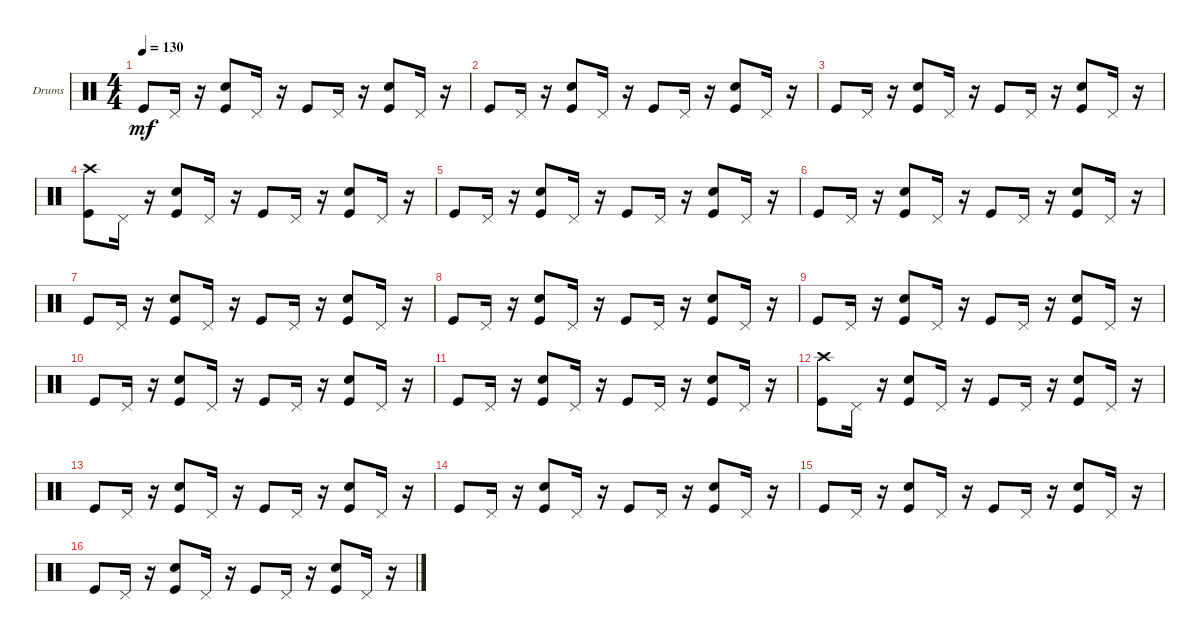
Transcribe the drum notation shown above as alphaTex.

\bracketExtendMode groupsimilarinstruments
\firstSystemTrackNameOrientation horizontal
\otherSystemsTrackNameOrientation horizontal
\track ("MIDI Drums" "Drums") {instrument percussion}
\staff {score}
\articulation defaults
\ts (4 4)
\tempo 130
\clef neutral
\ks c "Kick (hit)".8{dy mf} "Pedal Hi-Hat (hit)".16
r.16 ("Snare (hit) 2" "Kick (hit)").8 "Pedal Hi-Hat (hit)".16 r.16 "Kick (hit)".8 "Pedal Hi-Hat (hit)".16 r.16 ("Kick (hit)" "Snare (hit) 2").8 "Pedal Hi-Hat (hit)".16 r.16 |
"Kick (hit)".8 "Pedal Hi-Hat (hit)".16 r.16 ("Snare (hit) 2" "Kick (hit)").8 "Pedal Hi-Hat (hit)".16 r.16 "Kick (hit)".8 "Pedal Hi-Hat (hit)".16 r.16 ("Snare (hit) 2" "Kick (hit)").8 "Pedal Hi-Hat (hit)".16 r.16 |
"Kick (hit)".8 "Pedal Hi-Hat (hit)".16 r.16 ("Snare (hit) 2" "Kick (hit)").8 "Pedal Hi-Hat (hit)".16 r.16 "Kick (hit)".8 "Pedal Hi-Hat (hit)".16 r.16 ("Kick (hit)" "Snare (hit) 2").8 "Pedal Hi-Hat (hit)".16 r.16 |
("Crash high (hit)" "Kick (hit)").8 "Pedal Hi-Hat (hit)".16 r.16 ("Snare (hit) 2" "Kick (hit)").8 "Pedal Hi-Hat (hit)".16 r.16 "Kick (hit)".8 "Pedal Hi-Hat (hit)".16 r.16 ("Kick (hit)" "Snare (hit) 2").8 "Pedal Hi-Hat (hit)".16 r.16 |
"Kick (hit)".8 "Pedal Hi-Hat (hit)".16 r.16 ("Snare (hit) 2" "Kick (hit)").8 "Pedal Hi-Hat (hit)".16 r.16 "Kick (hit)".8 "Pedal Hi-Hat (hit)".16 r.16 ("Kick (hit)" "Snare (hit) 2").8 "Pedal Hi-Hat (hit)".16 r.16 |
"Kick (hit)".8 "Pedal Hi-Hat (hit)".16 r.16 ("Snare (hit) 2" "Kick (hit)").8 "Pedal Hi-Hat (hit)".16 r.16 "Kick (hit)".8 "Pedal Hi-Hat (hit)".16 r.16 ("Snare (hit) 2" "Kick (hit)").8 "Pedal Hi-Hat (hit)".16 r.16 |
"Kick (hit)".8 "Pedal Hi-Hat (hit)".16 r.16 ("Snare (hit) 2" "Kick (hit)").8 "Pedal Hi-Hat (hit)".16 r.16 "Kick (hit)".8 "Pedal Hi-Hat (hit)".16 r.16 ("Kick (hit)" "Snare (hit) 2").8 "Pedal Hi-Hat (hit)".16 r.16 |
"Kick (hit)".8 "Pedal Hi-Hat (hit)".16 r.16 ("Snare (hit) 2" "Kick (hit)").8 "Pedal Hi-Hat (hit)".16 r.16 "Kick (hit)".8 "Pedal Hi-Hat (hit)".16 r.16 ("Snare (hit) 2" "Kick (hit)").8 "Pedal Hi-Hat (hit)".16 r.16 |
"Kick (hit)".8 "Pedal Hi-Hat (hit)".16 r.16 ("Snare (hit) 2" "Kick (hit)").8 "Pedal Hi-Hat (hit)".16 r.16 "Kick (hit)".8 "Pedal Hi-Hat (hit)".16 r.16 ("Kick (hit)" "Snare (hit) 2").8 "Pedal Hi-Hat (hit)".16 r.16 |
"Kick (hit)".8 "Pedal Hi-Hat (hit)".16 r.16 ("Snare (hit) 2" "Kick (hit)").8 "Pedal Hi-Hat (hit)".16 r.16 "Kick (hit)".8 "Pedal Hi-Hat (hit)".16 r.16 ("Snare (hit) 2" "Kick (hit)").8 "Pedal Hi-Hat (hit)".16 r.16 |
"Kick (hit)".8 "Pedal Hi-Hat (hit)".16 r.16 ("Snare (hit) 2" "Kick (hit)").8 "Pedal Hi-Hat (hit)".16 r.16 "Kick (hit)".8 "Pedal Hi-Hat (hit)".16 r.16 ("Kick (hit)" "Snare (hit) 2").8 "Pedal Hi-Hat (hit)".16 r.16 |
("Crash high (hit)" "Kick (hit)").8 "Pedal Hi-Hat (hit)".16 r.16 ("Snare (hit) 2" "Kick (hit)").8 "Pedal Hi-Hat (hit)".16 r.16 "Kick (hit)".8 "Pedal Hi-Hat (hit)".16 r.16 ("Kick (hit)" "Snare (hit) 2").8 "Pedal Hi-Hat (hit)".16 r.16 |
"Kick (hit)".8 "Pedal Hi-Hat (hit)".16 r.16 ("Snare (hit) 2" "Kick (hit)").8 "Pedal Hi-Hat (hit)".16 r.16 "Kick (hit)".8 "Pedal Hi-Hat (hit)".16 r.16 ("Kick (hit)" "Snare (hit) 2").8 "Pedal Hi-Hat (hit)".16 r.16 |
"Kick (hit)".8 "Pedal Hi-Hat (hit)".16 r.16 ("Snare (hit) 2" "Kick (hit)").8 "Pedal Hi-Hat (hit)".16 r.16 "Kick (hit)".8 "Pedal Hi-Hat (hit)".16 r.16 ("Snare (hit) 2" "Kick (hit)").8 "Pedal Hi-Hat (hit)".16 r.16 |
"Kick (hit)".8 "Pedal Hi-Hat (hit)".16 r.16 ("Snare (hit) 2" "Kick (hit)").8 "Pedal Hi-Hat (hit)".16 r.16 "Kick (hit)".8 "Pedal Hi-Hat (hit)".16 r.16 ("Kick (hit)" "Snare (hit) 2").8 "Pedal Hi-Hat (hit)".16 r.16 |
"Kick (hit)".8 "Pedal Hi-Hat (hit)".16 r.16 ("Snare (hit) 2" "Kick (hit)").8 "Pedal Hi-Hat (hit)".16 r.16 "Kick (hit)".8 "Pedal Hi-Hat (hit)".16 r.16 ("Snare (hit) 2" "Kick (hit)").8 "Pedal Hi-Hat (hit)".16 r.16
